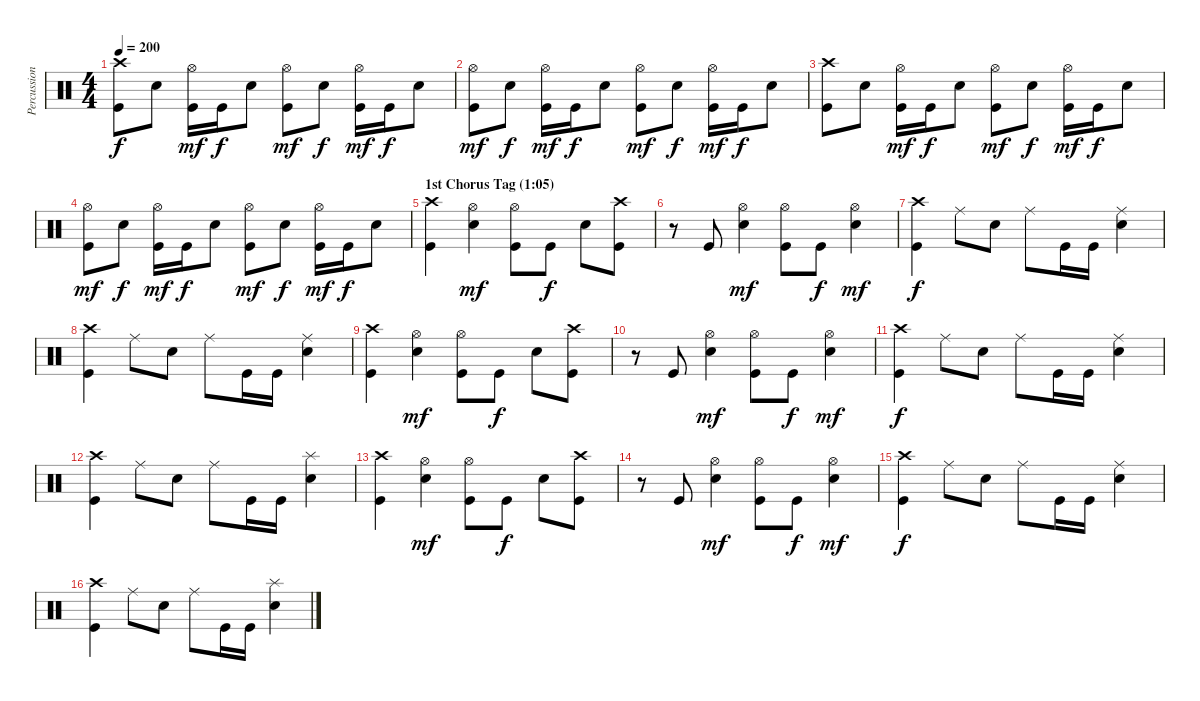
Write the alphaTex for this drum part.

\track ("Percussion" "Percussion") {instrument percussion}
\staff {score}
\articulation defaults
\ts (4 4)
\tempo 200
\clef neutral
\ks c
("Crash high (hit)" "Kick (hit)").8{dy f} "Snare (hit) 2".8 ("Hi-Hat (open)" "Kick (hit)").16{dy mf} "Kick (hit)".16{dy f} "Snare (hit) 2".8 ("Hi-Hat (open)" "Kick (hit)").8{dy mf} "Snare (hit) 2".8{dy f} ("Hi-Hat (open)" "Kick (hit)").16{dy mf} "Kick (hit)".16{dy f} "Snare (hit) 2".8 |
("Hi-Hat (open)" "Kick (hit)").8{dy mf} "Snare (hit) 2".8{dy f} ("Hi-Hat (open)" "Kick (hit)").16{dy mf} "Kick (hit)".16{dy f} "Snare (hit) 2".8 ("Hi-Hat (open)" "Kick (hit)").8{dy mf} "Snare (hit) 2".8{dy f} ("Hi-Hat (open)" "Kick (hit)").16{dy mf} "Kick (hit)".16{dy f} "Snare (hit) 2".8 |
("Crash high (hit)" "Kick (hit)").8 "Snare (hit) 2".8 ("Hi-Hat (open)" "Kick (hit)").16{dy mf} "Kick (hit)".16{dy f} "Snare (hit) 2".8 ("Hi-Hat (open)" "Kick (hit)").8{dy mf} "Snare (hit) 2".8{dy f} ("Hi-Hat (open)" "Kick (hit)").16{dy mf} "Kick (hit)".16{dy f} "Snare (hit) 2".8 |
("Hi-Hat (open)" "Kick (hit)").8{dy mf} "Snare (hit) 2".8{dy f} ("Hi-Hat (open)" "Kick (hit)").16{dy mf} "Kick (hit)".16{dy f} "Snare (hit) 2".8 ("Hi-Hat (open)" "Kick (hit)").8{dy mf} "Snare (hit) 2".8{dy f} ("Hi-Hat (open)" "Kick (hit)").16{dy mf} "Kick (hit)".16{dy f} "Snare (hit) 2".8 |
\section ("" "1st Chorus Tag (1:05)")
("Crash high (hit)" "Kick (hit)").4 ("Hi-Hat (open)" "Snare (hit) 2").4{dy mf} ("Hi-Hat (open)" "Kick (hit)").8 "Kick (hit)".8{dy f} "Snare (hit) 2".8 ("Crash high (hit)" "Kick (hit)").8 |
r.8 "Kick (hit)".8 ("Hi-Hat (open)" "Snare (hit) 2").4{dy mf} ("Hi-Hat (open)" "Kick (hit)").8 "Kick (hit)".8{dy f} ("Hi-Hat (open)" "Snare (hit) 2").4{dy mf} |
("Crash high (hit)" "Kick (hit)").4{dy f} "Ride (middle)".8 "Snare (hit) 2".8 "Ride (middle)".8 "Kick (hit)".16 "Kick (hit)".16 ("Ride (middle)" "Snare (hit) 2").4 |
("Crash high (hit)" "Kick (hit)").4 "Ride (middle)".8 "Snare (hit) 2".8 "Ride (middle)".8 "Kick (hit)".16 "Kick (hit)".16 ("Ride (middle)" "Snare (hit) 2").4 |
("Crash high (hit)" "Kick (hit)").4 ("Hi-Hat (open)" "Snare (hit) 2").4{dy mf} ("Hi-Hat (open)" "Kick (hit)").8 "Kick (hit)".8{dy f} "Snare (hit) 2".8 ("Crash high (hit)" "Kick (hit)").8 |
r.8 "Kick (hit)".8 ("Hi-Hat (open)" "Snare (hit) 2").4{dy mf} ("Hi-Hat (open)" "Kick (hit)").8 "Kick (hit)".8{dy f} ("Hi-Hat (open)" "Snare (hit) 2").4{dy mf} |
("Crash high (hit)" "Kick (hit)").4{dy f} "Ride (middle)".8 "Snare (hit) 2".8 "Ride (middle)".8 "Kick (hit)".16 "Kick (hit)".16 ("Ride (middle)" "Snare (hit) 2").4 |
("Crash high (hit)" "Kick (hit)").4 "Ride (middle)".8 "Snare (hit) 2".8 "Ride (middle)".8 "Kick (hit)".16 "Kick (hit)".16 ("Splash (hit)" "Snare (hit) 2").4 |
("Crash high (hit)" "Kick (hit)").4 ("Hi-Hat (open)" "Snare (hit) 2").4{dy mf} ("Hi-Hat (open)" "Kick (hit)").8 "Kick (hit)".8{dy f} "Snare (hit) 2".8 ("Crash high (hit)" "Kick (hit)").8 |
r.8 "Kick (hit)".8 ("Hi-Hat (open)" "Snare (hit) 2").4{dy mf} ("Hi-Hat (open)" "Kick (hit)").8 "Kick (hit)".8{dy f} ("Hi-Hat (open)" "Snare (hit) 2").4{dy mf} |
("Crash high (hit)" "Kick (hit)").4{dy f} "Ride (middle)".8 "Snare (hit) 2".8 "Ride (middle)".8 "Kick (hit)".16 "Kick (hit)".16 ("Ride (middle)" "Snare (hit) 2").4 |
("Crash high (hit)" "Kick (hit)").4 "Ride (middle)".8 "Snare (hit) 2".8 "Ride (middle)".8 "Kick (hit)".16 "Kick (hit)".16 ("Splash (hit)" "Snare (hit) 2").4
